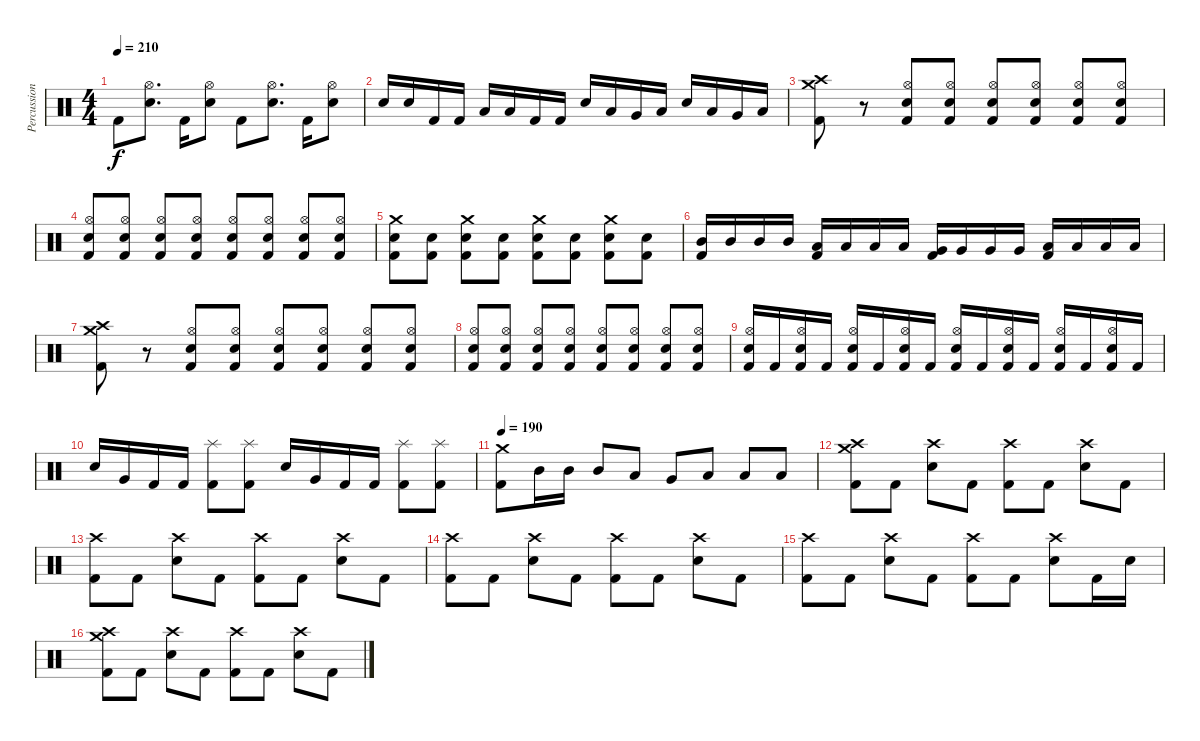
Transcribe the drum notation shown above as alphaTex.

\track ("Percussion" "Percussion") {instrument percussion}
\staff {score}
\articulation defaults
\ts (4 4)
\tempo 210
\clef neutral
\ks c "Kick (hit) 2".8{dy f}
("Hi-Hat (open)" "Electric Snare (hit)").8{d} "Kick (hit) 2".16 ("Hi-Hat (open)" "Electric Snare (hit)").8 "Kick (hit) 2".8 ("Hi-Hat (open)" "Electric Snare (hit)").8{d} "Kick (hit) 2".16 ("Hi-Hat (open)" "Electric Snare (hit)").8 |
"Electric Snare (hit)".16 "Electric Snare (hit)".16 "Kick (hit) 2".16 "Kick (hit) 2".16 "Low Floor Tom (hit)".16 "Low Floor Tom (hit)".16 "Kick (hit) 2".16 "Kick (hit) 2".16 "Electric Snare (hit)".16 "Low Tom (hit)".16 "Very Low Tom (hit)".16 "Low Floor Tom (hit)".16 "Electric Snare (hit)".16 "Low Tom (hit)".16 "Very Low Tom (hit)".16 "Low Floor Tom (hit)".16 |
("Crash medium (hit)" "Crash high (hit)" "Kick (hit) 2").8 r.8 ("Hi-Hat (open)" "Electric Snare (hit)" "Kick (hit) 2").8 ("Hi-Hat (open)" "Electric Snare (hit)" "Kick (hit) 2").8 ("Hi-Hat (open)" "Electric Snare (hit)" "Kick (hit) 2").8 ("Hi-Hat (open)" "Electric Snare (hit)" "Kick (hit) 2").8 ("Hi-Hat (open)" "Electric Snare (hit)" "Kick (hit) 2").8 ("Hi-Hat (open)" "Electric Snare (hit)" "Kick (hit) 2").8 |
("Hi-Hat (open)" "Electric Snare (hit)" "Kick (hit) 2").8 ("Hi-Hat (open)" "Electric Snare (hit)" "Kick (hit) 2").8 ("Hi-Hat (open)" "Electric Snare (hit)" "Kick (hit) 2").8 ("Hi-Hat (open)" "Electric Snare (hit)" "Kick (hit) 2").8 ("Hi-Hat (open)" "Electric Snare (hit)" "Kick (hit) 2").8 ("Hi-Hat (open)" "Electric Snare (hit)" "Kick (hit) 2").8 ("Hi-Hat (open)" "Electric Snare (hit)" "Kick (hit) 2").8 ("Hi-Hat (open)" "Electric Snare (hit)" "Kick (hit) 2").8 |
("Crash medium (hit)" "Electric Snare (hit)" "Kick (hit) 2").8 ("Electric Snare (hit)" "Kick (hit) 2").8 ("Crash medium (hit)" "Electric Snare (hit)" "Kick (hit) 2").8 ("Electric Snare (hit)" "Kick (hit) 2").8 ("Crash medium (hit)" "Electric Snare (hit)" "Kick (hit) 2").8 ("Electric Snare (hit)" "Kick (hit) 2").8 ("Crash medium (hit)" "Electric Snare (hit)" "Kick (hit) 2").8 ("Electric Snare (hit)" "Kick (hit) 2").8 |
("Mid Tom (hit)" "Kick (hit) 2").16 "Mid Tom (hit)".16 "Mid Tom (hit)".16 "Mid Tom (hit)".16 ("Low Tom (hit)" "Kick (hit) 2").16 "Low Tom (hit)".16 "Low Tom (hit)".16 "Low Tom (hit)".16 ("Very Low Tom (hit)" "Kick (hit) 2").16 "Very Low Tom (hit)".16 "Very Low Tom (hit)".16 "Very Low Tom (hit)".16 ("Low Floor Tom (hit)" "Kick (hit) 2").16 "Low Floor Tom (hit)".16 "Low Floor Tom (hit)".16 "Low Floor Tom (hit)".16 |
("Crash medium (hit)" "Crash high (hit)" "Kick (hit) 2").8 r.8 ("Hi-Hat (open)" "Electric Snare (hit)" "Kick (hit) 2").8 ("Hi-Hat (open)" "Electric Snare (hit)" "Kick (hit) 2").8 ("Hi-Hat (open)" "Electric Snare (hit)" "Kick (hit) 2").8 ("Hi-Hat (open)" "Electric Snare (hit)" "Kick (hit) 2").8 ("Hi-Hat (open)" "Electric Snare (hit)" "Kick (hit) 2").8 ("Hi-Hat (open)" "Electric Snare (hit)" "Kick (hit) 2").8 |
("Hi-Hat (open)" "Electric Snare (hit)" "Kick (hit) 2").8 ("Hi-Hat (open)" "Electric Snare (hit)" "Kick (hit) 2").8 ("Hi-Hat (open)" "Electric Snare (hit)" "Kick (hit) 2").8 ("Hi-Hat (open)" "Electric Snare (hit)" "Kick (hit) 2").8 ("Hi-Hat (open)" "Electric Snare (hit)" "Kick (hit) 2").8 ("Hi-Hat (open)" "Electric Snare (hit)" "Kick (hit) 2").8 ("Hi-Hat (open)" "Electric Snare (hit)" "Kick (hit) 2").8 ("Hi-Hat (open)" "Electric Snare (hit)" "Kick (hit) 2").8 |
("Hi-Hat (open)" "Electric Snare (hit)" "Kick (hit) 2").16 "Kick (hit) 2".16 ("Hi-Hat (open)" "Electric Snare (hit)" "Kick (hit) 2").16 "Kick (hit) 2".16 ("Hi-Hat (open)" "Electric Snare (hit)" "Kick (hit) 2").16 "Kick (hit) 2".16 ("Hi-Hat (open)" "Electric Snare (hit)" "Kick (hit) 2").16 "Kick (hit) 2".16 ("Hi-Hat (open)" "Electric Snare (hit)" "Kick (hit) 2").16 "Kick (hit) 2".16 ("Hi-Hat (open)" "Electric Snare (hit)" "Kick (hit) 2").16 "Kick (hit) 2".16 ("Hi-Hat (open)" "Electric Snare (hit)" "Kick (hit) 2").16 "Kick (hit) 2".16 ("Hi-Hat (open)" "Electric Snare (hit)" "Kick (hit) 2").16 "Kick (hit) 2".16 |
"Electric Snare (hit)".16 "Very Low Tom (hit)".16 "Kick (hit) 2".16 "Kick (hit) 2".16 ("Splash (hit)" "Kick (hit) 2").8 ("Splash (hit)" "Kick (hit) 2").8 "Electric Snare (hit)".16 "Very Low Tom (hit)".16 "Kick (hit) 2".16 "Kick (hit) 2".16 ("Splash (hit)" "Kick (hit) 2").8 ("Splash (hit)" "Kick (hit) 2").8 |
\tempo 190
("Crash medium (hit)" "Kick (hit) 2").8 "Mid Tom (hit)".16 "Mid Tom (hit)".16 "Mid Tom (hit)".8 "Low Tom (hit)".8 "Very Low Tom (hit)".8 "Low Floor Tom (hit)".8 "Low Floor Tom (hit)".8 "Low Floor Tom (hit)".8 |
("Crash high (hit)" "Crash medium (hit)" "Kick (hit) 2").8 "Kick (hit) 2".8 ("Crash high (hit)" "Electric Snare (hit)").8 "Kick (hit) 2".8 ("Crash high (hit)" "Kick (hit) 2").8 "Kick (hit) 2".8 ("Crash high (hit)" "Electric Snare (hit)").8 "Kick (hit) 2".8 |
("Crash high (hit)" "Kick (hit) 2").8 "Kick (hit) 2".8 ("Crash high (hit)" "Electric Snare (hit)").8 "Kick (hit) 2".8 ("Crash high (hit)" "Kick (hit) 2").8 "Kick (hit) 2".8 ("Crash high (hit)" "Electric Snare (hit)").8 "Kick (hit) 2".8 |
("Crash high (hit)" "Kick (hit) 2").8 "Kick (hit) 2".8 ("Crash high (hit)" "Electric Snare (hit)").8 "Kick (hit) 2".8 ("Crash high (hit)" "Kick (hit) 2").8 "Kick (hit) 2".8 ("Crash high (hit)" "Electric Snare (hit)").8 "Kick (hit) 2".8 |
("Crash high (hit)" "Kick (hit) 2").8 "Kick (hit) 2".8 ("Crash high (hit)" "Electric Snare (hit)").8 "Kick (hit) 2".8 ("Crash high (hit)" "Kick (hit) 2").8 "Kick (hit) 2".8 ("Crash high (hit)" "Electric Snare (hit)").8 "Kick (hit) 2".16 "Electric Snare (hit)".16 |
("Crash high (hit)" "Crash medium (hit)" "Kick (hit) 2").8 "Kick (hit) 2".8 ("Crash high (hit)" "Electric Snare (hit)").8 "Kick (hit) 2".8 ("Crash high (hit)" "Kick (hit) 2").8 "Kick (hit) 2".8 ("Crash high (hit)" "Electric Snare (hit)").8 "Kick (hit) 2".8
